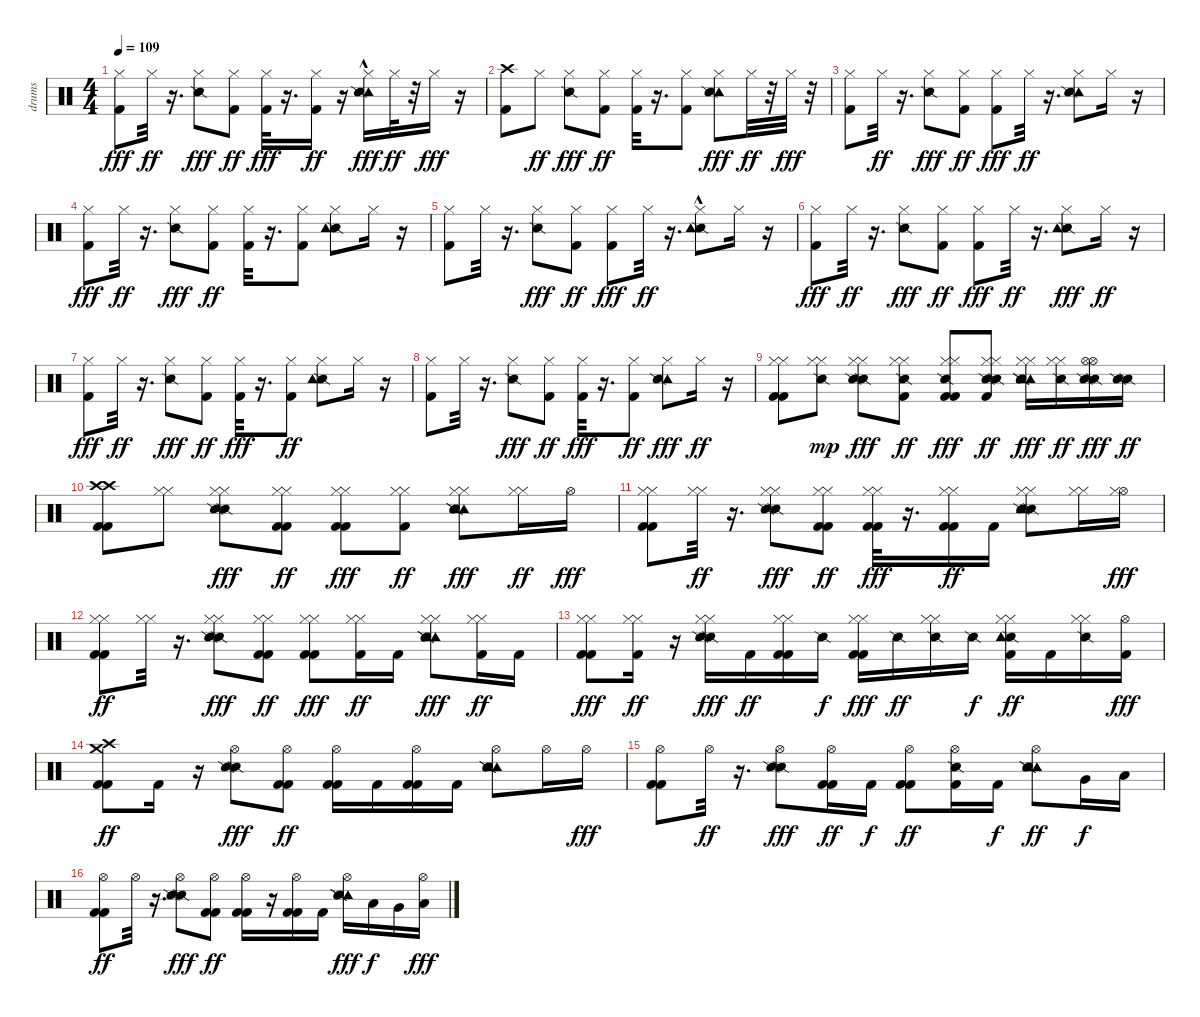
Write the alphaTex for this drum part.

\track ("drums" "drums") {instrument percussion}
\staff {score}
\articulation defaults
\ts (4 4)
\tempo 109
\clef neutral
\ks c
("Kick (hit) 2" "Hi-Hat (closed)").8{dy fff} "Hi-Hat (closed)".32{dy ff} r.16{d} ("Hi-Hat (closed)" "Snare (side stick) 2").8{dy fff} ("Hi-Hat (closed)" "Kick (hit) 2").8{dy ff} ("Kick (hit) 2" "Hi-Hat (closed)").32{dy fff} r.16{d} ("Kick (hit) 2" "Hi-Hat (closed)").16{dy ff} r.16 ("Tambourine (hit)"{hac} "Snare (side stick) 2" "Hi-Hat (closed)").16{dy fff} "Hi-Hat (closed)".32{dy ff} r.32 "Hi-Hat (closed)".16{dy fff} r.16 |
("Kick (hit) 2" "Crash high (hit)").8 "Hi-Hat (closed)".8{dy ff} ("Snare (side stick) 2" "Hi-Hat (closed)").8{dy fff} ("Kick (hit) 2" "Hi-Hat (closed)").8{dy ff} ("Hi-Hat (closed)" "Kick (hit) 2").32 r.16{d} ("Kick (hit) 2" "Hi-Hat (closed)").8 ("Tambourine (hit)" "Snare (side stick) 2" "Hi-Hat (closed)").8{dy fff} "Hi-Hat (closed)".32{dy ff} r.32 "Hi-Hat (closed)".32{dy fff} r.32 |
("Kick (hit) 2" "Hi-Hat (closed)").8 "Hi-Hat (closed)".32{dy ff} r.16{d} ("Hi-Hat (closed)" "Snare (side stick) 2").8{dy fff} ("Hi-Hat (closed)" "Kick (hit) 2").8{dy ff} ("Kick (hit) 2" "Hi-Hat (closed)").8{dy fff} "Hi-Hat (closed)".32{dy ff} r.16{d} ("Hi-Hat (closed)" "Tambourine (hit)" "Snare (side stick) 2").8 "Hi-Hat (closed)".16 r.16 |
("Kick (hit) 2" "Hi-Hat (closed)").8{dy fff} "Hi-Hat (closed)".32{dy ff} r.16{d} ("Hi-Hat (closed)" "Snare (side stick) 2").8{dy fff} ("Hi-Hat (closed)" "Kick (hit) 2").8{dy ff} ("Hi-Hat (closed)" "Kick (hit) 2").32 r.16{d} ("Hi-Hat (closed)" "Kick (hit) 2").8 ("Hi-Hat (closed)" "Snare (side stick) 2" "Tambourine (hit)").8 "Hi-Hat (closed)".16 r.16 |
("Hi-Hat (closed)" "Kick (hit) 2").8 "Hi-Hat (closed)".32 r.16{d} ("Hi-Hat (closed)" "Snare (side stick) 2").8{dy fff} ("Hi-Hat (closed)" "Kick (hit) 2").8{dy ff} ("Kick (hit) 2" "Hi-Hat (closed)").8{dy fff} "Hi-Hat (closed)".32{dy ff} r.16{d} ("Hi-Hat (closed)" "Snare (side stick) 2" "Tambourine (hit)"{hac}).8 "Hi-Hat (closed)".16 r.16 |
("Kick (hit) 2" "Hi-Hat (closed)").8{dy fff} "Hi-Hat (closed)".32{dy ff} r.16{d} ("Hi-Hat (closed)" "Snare (side stick) 2").8{dy fff} ("Hi-Hat (closed)" "Kick (hit) 2").8{dy ff} ("Kick (hit) 2" "Hi-Hat (closed)").8{dy fff} "Hi-Hat (closed)".32{dy ff} r.16{d} ("Snare (side stick) 2" "Tambourine (hit)" "Hi-Hat (closed)").8{dy fff} "Hi-Hat (closed)".16{dy ff} r.16 |
("Kick (hit) 2" "Hi-Hat (closed)").8{dy fff} "Hi-Hat (closed)".32{dy ff} r.16{d} ("Snare (side stick) 2" "Hi-Hat (closed)").8{dy fff} ("Kick (hit) 2" "Hi-Hat (closed)").8{dy ff} ("Kick (hit) 2" "Hi-Hat (closed)").32{dy fff} r.16{d} ("Hi-Hat (closed)" "Kick (hit) 2").8{dy ff} ("Snare (side stick) 2" "Hi-Hat (closed)" "Tambourine (hit)").8 "Hi-Hat (closed)".16 r.16 |
("Hi-Hat (closed)" "Kick (hit) 2").8 "Hi-Hat (closed)".32 r.16{d} ("Hi-Hat (closed)" "Snare (side stick) 2").8{dy fff} ("Kick (hit) 2" "Hi-Hat (closed)").8{dy ff} ("Kick (hit) 2" "Hi-Hat (closed)").32{dy fff} r.16{d} ("Hi-Hat (closed)" "Kick (hit) 2").8{dy ff} ("Tambourine (hit)" "Hi-Hat (closed)" "Snare (side stick) 2").8{dy fff} "Hi-Hat (closed)".16{dy ff} r.16 |
("Hi-Hat (closed)" "Kick (hit) 2" "Hi-Hat (closed)" "Kick (hit) 2").8 ("Hi-Hat (closed)" "Hi-Hat (closed)" "Snare (side stick) 2").8{dy mp} ("Hi-Hat (closed)" "Snare (side stick) 2" "Snare (side stick) 2" "Hi-Hat (closed)").8{dy fff} ("Hi-Hat (closed)" "Snare (side stick) 2" "Hi-Hat (closed)" "Kick (hit) 2").8{dy ff} ("Kick (hit) 2" "Kick (hit) 2" "Hi-Hat (closed)" "Snare (side stick) 2" "Hi-Hat (closed)").8{dy fff} ("Kick (hit) 2" "Snare (side stick) 2" "Hi-Hat (closed)" "Hi-Hat (closed)" "Snare (side stick) 2").8{dy ff} ("Hi-Hat (closed)" "Tambourine (hit)" "Snare (side stick) 2" "Tambourine (hit)" "Snare (side stick) 2" "Hi-Hat (closed)").16{dy fff} ("Snare (side stick) 2" "Hi-Hat (closed)" "Hi-Hat (closed)").16{dy ff} ("Snare (side stick) 2" "Hi-Hat (open)" "Snare (side stick) 2" "Hi-Hat (open)").16{dy fff} ("Snare (side stick) 2" "Snare (side stick) 2").16{dy ff} |
("Kick (hit) 2" "Crash high (hit)" "Kick (hit) 2" "Crash high (hit)").8 ("Hi-Hat (closed)" "Hi-Hat (closed)").8 ("Snare (side stick) 2" "Hi-Hat (closed)" "Snare (side stick) 2" "Hi-Hat (closed)").8{dy fff} ("Hi-Hat (closed)" "Kick (hit) 2" "Hi-Hat (closed)" "Kick (hit) 2").8{dy ff} ("Kick (hit) 2" "Hi-Hat (closed)" "Kick (hit) 2" "Hi-Hat (closed)").8{dy fff} ("Kick (hit) 2" "Hi-Hat (closed)" "Hi-Hat (closed)").8{dy ff} ("Hi-Hat (closed)" "Tambourine (hit)" "Snare (side stick) 2" "Tambourine (hit)" "Hi-Hat (closed)" "Snare (side stick) 2").8{dy fff} ("Hi-Hat (closed)" "Hi-Hat (closed)").16{dy ff} "Hi-Hat (open)".16{dy fff} |
("Hi-Hat (closed)" "Kick (hit) 2" "Kick (hit) 2" "Hi-Hat (closed)").8 ("Hi-Hat (closed)" "Hi-Hat (closed)").32{dy ff} r.16{d} ("Hi-Hat (closed)" "Snare (side stick) 2" "Hi-Hat (closed)" "Snare (side stick) 2").8{dy fff} ("Kick (hit) 2" "Hi-Hat (closed)" "Hi-Hat (closed)" "Kick (hit) 2").8{dy ff} ("Hi-Hat (closed)" "Kick (hit) 2" "Kick (hit) 2" "Hi-Hat (closed)").32{dy fff} r.16{d} ("Kick (hit) 2" "Hi-Hat (closed)" "Hi-Hat (closed)" "Kick (hit) 2").16{dy ff} "Kick (hit) 2".16 ("Snare (side stick) 2" "Tambourine (hit)" "Hi-Hat (closed)" "Hi-Hat (closed)" "Tambourine (hit)" "Snare (side stick) 2").8 ("Hi-Hat (closed)" "Hi-Hat (closed)").16 ("Hi-Hat (open)" "Hi-Hat (closed)").16{dy fff} |
("Hi-Hat (closed)" "Hi-Hat (closed)" "Kick (hit) 2" "Kick (hit) 2").8{dy ff} ("Hi-Hat (closed)" "Hi-Hat (closed)").32 r.16{d} ("Snare (side stick) 2" "Hi-Hat (closed)" "Hi-Hat (closed)" "Snare (side stick) 2").8{dy fff} ("Hi-Hat (closed)" "Kick (hit) 2" "Kick (hit) 2" "Hi-Hat (closed)").8{dy ff} ("Kick (hit) 2" "Hi-Hat (closed)" "Kick (hit) 2" "Hi-Hat (closed)").8{dy fff} ("Kick (hit) 2" "Hi-Hat (closed)" "Hi-Hat (closed)").16{dy ff} "Kick (hit) 2".16 ("Tambourine (hit)" "Hi-Hat (closed)" "Tambourine (hit)" "Snare (side stick) 2" "Hi-Hat (closed)" "Snare (side stick) 2").8{dy fff} ("Hi-Hat (closed)" "Kick (hit) 2" "Hi-Hat (closed)").16{dy ff} "Kick (hit) 2".16 |
("Kick (hit) 2" "Hi-Hat (closed)" "Kick (hit) 2" "Hi-Hat (closed)").8{dy fff} ("Kick (hit) 2" "Hi-Hat (closed)" "Hi-Hat (closed)").16{dy ff} r.16 ("Hi-Hat (closed)" "Snare (side stick) 2" "Hi-Hat (closed)" "Snare (side stick) 2").16{dy fff} "Kick (hit) 2".16{dy ff} ("Hi-Hat (closed)" "Kick (hit) 2" "Hi-Hat (closed)" "Kick (hit) 2").16 "Snare (side stick) 2".16{dy f} ("Kick (hit) 2" "Kick (hit) 2" "Hi-Hat (closed)" "Hi-Hat (closed)").16{dy fff} "Snare (side stick) 2".16{dy ff} ("Snare (side stick) 2" "Hi-Hat (closed)" "Hi-Hat (closed)").16 "Snare (side stick) 2".16{dy f} ("Snare (side stick) 2" "Hi-Hat (closed)" "Tambourine (hit)" "Hi-Hat (closed)" "Tambourine (hit)" "Kick (hit) 2").16{dy ff} "Kick (hit) 2".16 ("Snare (side stick) 2" "Hi-Hat (closed)" "Hi-Hat (closed)").16 ("Kick (hit) 2" "Hi-Hat (open)").16{dy fff} |
("Kick (hit) 2" "Crash medium (hit)" "Crash high (hit)" "Kick (hit) 2").8{dy ff} "Kick (hit) 2".16 r.16 ("Snare (side stick) 2" "Snare (side stick) 2" "Hi-Hat (open)").8{dy fff} ("Hi-Hat (open)" "Kick (hit) 2" "Kick (hit) 2").8{dy ff} ("Kick (hit) 2" "Hi-Hat (open)" "Kick (hit) 2").16 "Kick (hit) 2".16 ("Hi-Hat (open)" "Kick (hit) 2" "Kick (hit) 2").16 "Kick (hit) 2".16 ("Hi-Hat (open)" "Tambourine (hit)" "Tambourine (hit)" "Snare (side stick) 2" "Snare (side stick) 2").8 "Hi-Hat (open)".16 "Hi-Hat (open)".16{dy fff} |
("Kick (hit) 2" "Kick (hit) 2" "Hi-Hat (open)").8 "Hi-Hat (open)".32{dy ff} r.16{d} ("Hi-Hat (open)" "Snare (side stick) 2" "Snare (side stick) 2").8{dy fff} ("Hi-Hat (open)" "Kick (hit) 2" "Kick (hit) 2").16{dy ff} "Kick (hit) 2".16{dy f} ("Kick (hit) 2" "Hi-Hat (open)" "Kick (hit) 2").8{dy ff} ("Hi-Hat (open)" "Snare (side stick) 2" "Kick (hit) 2").16 "Kick (hit) 2".16{dy f} ("Hi-Hat (open)" "Tambourine (hit)" "Tambourine (hit)" "Snare (side stick) 2" "Snare (side stick) 2").8{dy ff} "Very Low Tom (hit)".16{dy f} "Low Floor Tom (hit)".16 |
("Kick (hit) 2" "Hi-Hat (open)" "Kick (hit) 2").8{dy ff} "Hi-Hat (open)".32 r.16{d} ("Hi-Hat (open)" "Snare (side stick) 2" "Snare (side stick) 2").8{dy fff} ("Kick (hit) 2" "Kick (hit) 2" "Hi-Hat (open)").8{dy ff} ("Hi-Hat (open)" "Kick (hit) 2" "Kick (hit) 2").16 r.16 ("Kick (hit) 2" "Kick (hit) 2" "Hi-Hat (open)").16 "Kick (hit) 2".16 ("Tambourine (hit)" "Hi-Hat (open)" "Snare (side stick) 2" "Snare (side stick) 2").16{dy fff} "Low Tom (hit)".16{dy f} "Very Low Tom (hit)".16 ("Hi-Hat (open)" "Low Floor Tom (hit)").16{dy fff}
